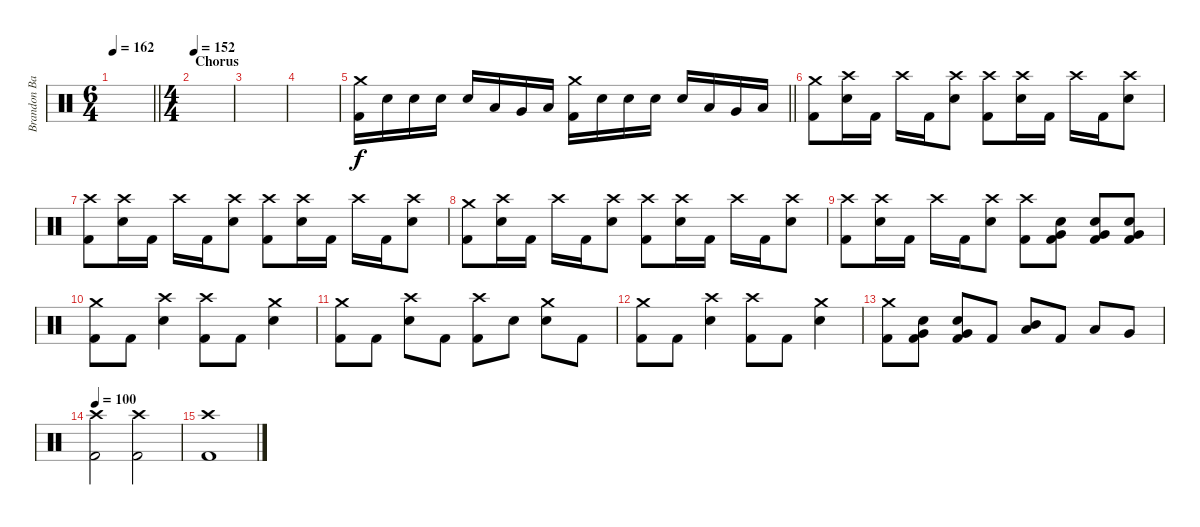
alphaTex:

\track ("Brandon Barnes - Drums" "Brandon Ba") {instrument percussion}
\staff {score}
\articulation defaults
\ts (6 4)
\tempo 162
\clef neutral
\barLineRight lightlight
\ks c
|
\ts (4 4)
\section ("" "Chorus")
\tempo 152
|
|
|
\barLineRight lightlight
("Crash medium (hit)" "Kick (hit) 2").16 "Electric Snare (hit)".16 "Electric Snare (hit)".16 "Electric Snare (hit)".16 "Electric Snare (hit)".16 "Low Tom (hit)".16 "Very Low Tom (hit)".16 "Low Floor Tom (hit)".16 ("Crash medium (hit)" "Kick (hit) 2").16 "Electric Snare (hit)".16 "Electric Snare (hit)".16 "Electric Snare (hit)".16 "Electric Snare (hit)".16 "Low Tom (hit)".16 "Very Low Tom (hit)".16 "Low Floor Tom (hit)".16 |
("Crash medium (hit)" "Kick (hit) 2").8 ("Crash high (hit)" "Electric Snare (hit)").16 "Kick (hit) 2".16 "Crash high (hit)".16 "Kick (hit) 2".16 ("Crash high (hit)" "Electric Snare (hit)").8 ("Crash high (hit)" "Kick (hit) 2").8 ("Crash high (hit)" "Electric Snare (hit)").16 "Kick (hit) 2".16 "Crash high (hit)".16 "Kick (hit) 2".16 ("Crash high (hit)" "Electric Snare (hit)").8 |
("Crash high (hit)" "Kick (hit) 2").8 ("Crash high (hit)" "Electric Snare (hit)").16 "Kick (hit) 2".16 "Crash high (hit)".16 "Kick (hit) 2".16 ("Crash high (hit)" "Electric Snare (hit)").8 ("Crash high (hit)" "Kick (hit) 2").8 ("Crash high (hit)" "Electric Snare (hit)").16 "Kick (hit) 2".16 "Crash high (hit)".16 "Kick (hit) 2".16 ("Crash high (hit)" "Electric Snare (hit)").8 |
("Crash medium (hit)" "Kick (hit) 2").8 ("Crash high (hit)" "Electric Snare (hit)").16 "Kick (hit) 2".16 "Crash high (hit)".16 "Kick (hit) 2".16 ("Crash high (hit)" "Electric Snare (hit)").8 ("Crash high (hit)" "Kick (hit) 2").8 ("Crash high (hit)" "Electric Snare (hit)").16 "Kick (hit) 2".16 "Crash high (hit)".16 "Kick (hit) 2".16 ("Crash high (hit)" "Electric Snare (hit)").8 |
("Crash high (hit)" "Kick (hit) 2").8 ("Crash high (hit)" "Electric Snare (hit)").16 "Kick (hit) 2".16 "Crash high (hit)".16 "Kick (hit) 2".16 ("Crash high (hit)" "Electric Snare (hit)").8 ("Crash high (hit)" "Kick (hit) 2").8 ("Very Low Tom (hit)" "Electric Snare (hit)" "Kick (hit) 2").8 ("Very Low Tom (hit)" "Electric Snare (hit)" "Kick (hit) 2").8 ("Very Low Tom (hit)" "Electric Snare (hit)" "Kick (hit) 2").8 |
("Crash medium (hit)" "Kick (hit) 2").8 "Kick (hit) 2".8 ("Crash high (hit)" "Electric Snare (hit)").4 ("Crash high (hit)" "Kick (hit) 2").8 "Kick (hit) 2".8 ("Crash medium (hit)" "Electric Snare (hit)").4 |
("Crash medium (hit)" "Kick (hit) 2").8 "Kick (hit) 2".8 ("Crash high (hit)" "Electric Snare (hit)").8 "Kick (hit) 2".8 ("Crash high (hit)" "Kick (hit) 2").8 "Electric Snare (hit)".8 ("Crash medium (hit)" "Electric Snare (hit)").8 "Kick (hit) 2".8 |
("Crash medium (hit)" "Kick (hit) 2").8 "Kick (hit) 2".8 ("Crash high (hit)" "Electric Snare (hit)").4 ("Crash high (hit)" "Kick (hit) 2").8 "Kick (hit) 2".8 ("Crash medium (hit)" "Electric Snare (hit)").4 |
("Crash medium (hit)" "Kick (hit) 2").8 ("Very Low Tom (hit)" "Electric Snare (hit)" "Kick (hit) 2").8 ("Very Low Tom (hit)" "Electric Snare (hit)" "Kick (hit) 2").8 "Kick (hit) 2".8 ("Low Tom (hit)" "Mid Tom (hit)").8 "Kick (hit) 2".8 "Low Tom (hit)".8 "Very Low Tom (hit)".8 |
\tempo 100
("Crash high (hit)" "Kick (hit) 2").2 ("Crash high (hit)" "Kick (hit) 2").2 |
("Crash high (hit)" "Kick (hit) 2").1
